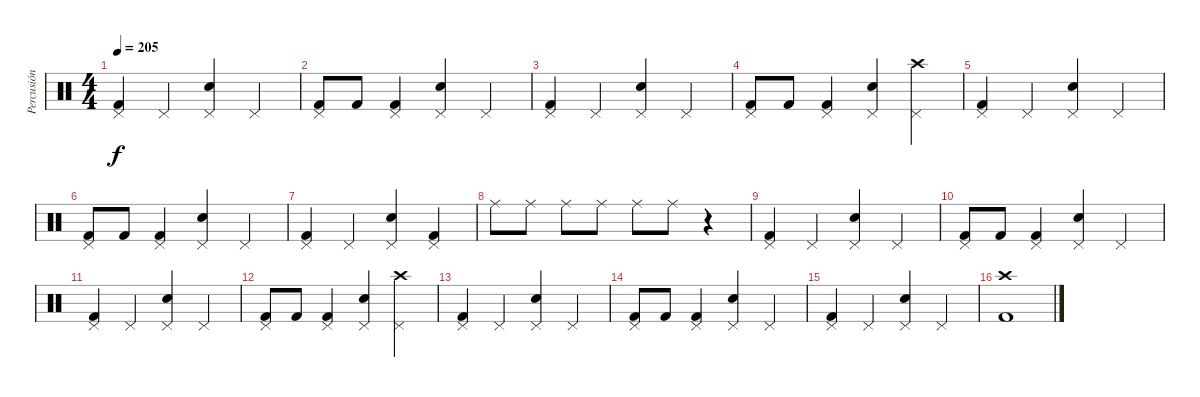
\track ("Percusión" "Percusión") {instrument percussion}
\staff {score}
\articulation defaults
\ts (4 4)
\tempo 205
\clef neutral
\ks c
("Kick (hit) 2" "Pedal Hi-Hat (hit)").4{dy f} "Pedal Hi-Hat (hit)".4 ("Snare (hit) 2" "Pedal Hi-Hat (hit)").4 "Pedal Hi-Hat (hit)".4 |
("Kick (hit) 2" "Pedal Hi-Hat (hit)").8 "Kick (hit) 2".8 ("Kick (hit) 2" "Pedal Hi-Hat (hit)").4 ("Snare (hit) 2" "Pedal Hi-Hat (hit)").4 "Pedal Hi-Hat (hit)".4 |
("Kick (hit) 2" "Pedal Hi-Hat (hit)").4 "Pedal Hi-Hat (hit)".4 ("Snare (hit) 2" "Pedal Hi-Hat (hit)").4 "Pedal Hi-Hat (hit)".4 |
("Kick (hit) 2" "Pedal Hi-Hat (hit)").8 "Kick (hit) 2".8 ("Kick (hit) 2" "Pedal Hi-Hat (hit)").4 ("Snare (hit) 2" "Pedal Hi-Hat (hit)").4 ("Crash high (hit)" "Pedal Hi-Hat (hit)").4 |
("Kick (hit) 2" "Pedal Hi-Hat (hit)").4 "Pedal Hi-Hat (hit)".4 ("Snare (hit) 2" "Pedal Hi-Hat (hit)").4 "Pedal Hi-Hat (hit)".4 |
("Kick (hit) 2" "Pedal Hi-Hat (hit)").8 "Kick (hit) 2".8 ("Kick (hit) 2" "Pedal Hi-Hat (hit)").4 ("Snare (hit) 2" "Pedal Hi-Hat (hit)").4 "Pedal Hi-Hat (hit)".4 |
("Kick (hit) 2" "Pedal Hi-Hat (hit)").4 "Pedal Hi-Hat (hit)".4 ("Snare (hit) 2" "Pedal Hi-Hat (hit)").4 ("Kick (hit) 2" "Pedal Hi-Hat (hit)").4 |
"Ride (middle)".8 "Ride (middle)".8 "Ride (middle)".8 "Ride (middle)".8 "Ride (middle)".8 "Ride (middle)".8 r.4 |
("Kick (hit) 2" "Pedal Hi-Hat (hit)").4 "Pedal Hi-Hat (hit)".4 ("Snare (hit) 2" "Pedal Hi-Hat (hit)").4 "Pedal Hi-Hat (hit)".4 |
("Kick (hit) 2" "Pedal Hi-Hat (hit)").8 "Kick (hit) 2".8 ("Kick (hit) 2" "Pedal Hi-Hat (hit)").4 ("Snare (hit) 2" "Pedal Hi-Hat (hit)").4 "Pedal Hi-Hat (hit)".4 |
("Kick (hit) 2" "Pedal Hi-Hat (hit)").4 "Pedal Hi-Hat (hit)".4 ("Snare (hit) 2" "Pedal Hi-Hat (hit)").4 "Pedal Hi-Hat (hit)".4 |
("Kick (hit) 2" "Pedal Hi-Hat (hit)").8 "Kick (hit) 2".8 ("Kick (hit) 2" "Pedal Hi-Hat (hit)").4 ("Snare (hit) 2" "Pedal Hi-Hat (hit)").4 ("Crash high (hit)" "Pedal Hi-Hat (hit)").4 |
("Kick (hit) 2" "Pedal Hi-Hat (hit)").4 "Pedal Hi-Hat (hit)".4 ("Snare (hit) 2" "Pedal Hi-Hat (hit)").4 "Pedal Hi-Hat (hit)".4 |
("Kick (hit) 2" "Pedal Hi-Hat (hit)").8 "Kick (hit) 2".8 ("Kick (hit) 2" "Pedal Hi-Hat (hit)").4 ("Snare (hit) 2" "Pedal Hi-Hat (hit)").4 "Pedal Hi-Hat (hit)".4 |
("Kick (hit) 2" "Pedal Hi-Hat (hit)").4 "Pedal Hi-Hat (hit)".4 ("Snare (hit) 2" "Pedal Hi-Hat (hit)").4 "Pedal Hi-Hat (hit)".4 |
("Crash high (hit)" "Kick (hit) 2").1
